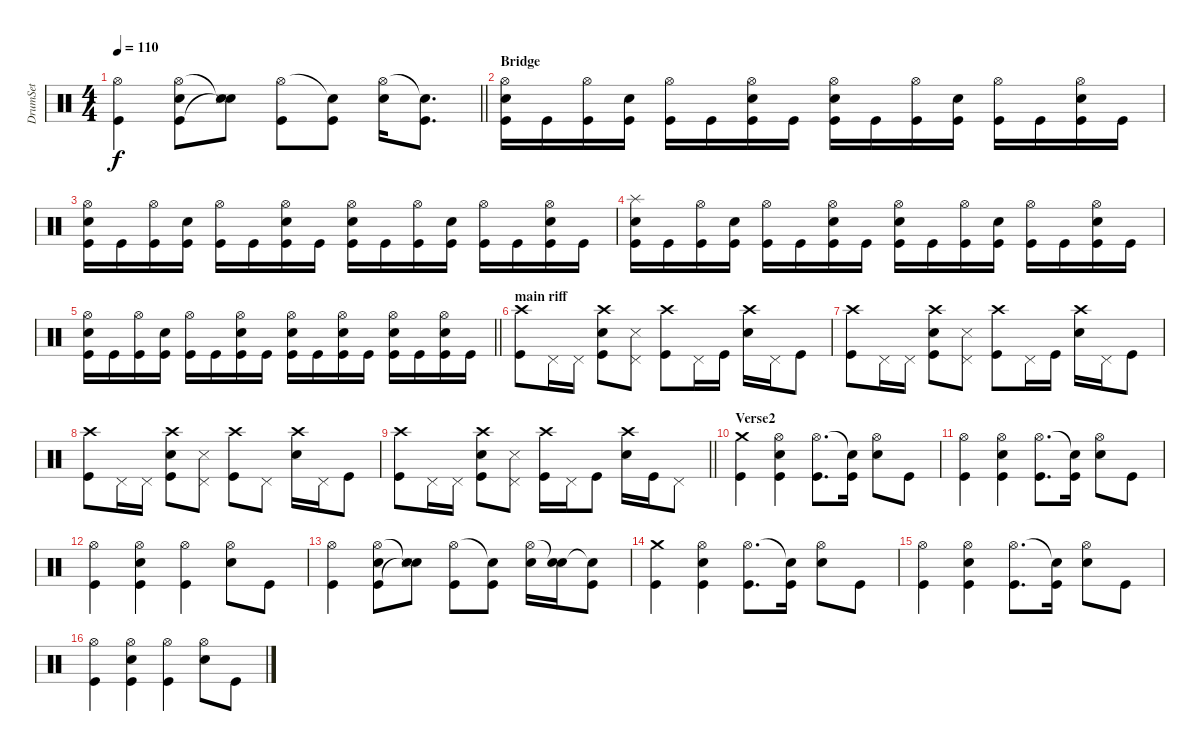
\track ("DrumSet" "DrumSet") {instrument percussion}
\staff {score}
\articulation defaults
\ts (4 4)
\tempo 110
\clef neutral
\barLineRight lightlight
\ks c
("Hi-Hat (open)" "Kick (hit)").4{dy f} ("Hi-Hat (open)" "Snare (hit) 2" "Kick (hit)").8 ("Snare (hit)"{t} "Snare (side stick) 3" "Snare (hit)"{t}).8 ("Hi-Hat (open)" "Kick (hit)").8 ("Snare (hit)"{t} "Kick (hit)").8 ("Hi-Hat (open)" "Snare (hit) 2").16 ("Snare (hit)"{t} "Kick (hit)").8{d} |
\section ("" "Bridge")
("Hi-Hat (open)" "Snare (hit) 2" "Kick (hit)").16 "Kick (hit)".16 ("Hi-Hat (open)" "Kick (hit)").16 ("Snare (hit) 2" "Kick (hit)").16 ("Hi-Hat (open)" "Kick (hit)").16 "Kick (hit)".16 ("Hi-Hat (open)" "Snare (hit) 2" "Kick (hit)").16 "Kick (hit)".16 ("Hi-Hat (open)" "Snare (hit) 2" "Kick (hit)").16 "Kick (hit)".16 ("Hi-Hat (open)" "Kick (hit)").16 ("Snare (hit) 2" "Kick (hit)").16 ("Hi-Hat (open)" "Kick (hit)").16 "Kick (hit)".16 ("Hi-Hat (open)" "Snare (hit) 2" "Kick (hit)").16 "Kick (hit)".16 |
("Hi-Hat (open)" "Snare (hit) 2" "Kick (hit)").16 "Kick (hit)".16 ("Hi-Hat (open)" "Kick (hit)").16 ("Snare (hit) 2" "Kick (hit)").16 ("Hi-Hat (open)" "Kick (hit)").16 "Kick (hit)".16 ("Hi-Hat (open)" "Snare (hit) 2" "Kick (hit)").16 "Kick (hit)".16 ("Hi-Hat (open)" "Snare (hit) 2" "Kick (hit)").16 "Kick (hit)".16 ("Hi-Hat (open)" "Kick (hit)").16 ("Snare (hit) 2" "Kick (hit)").16 ("Hi-Hat (open)" "Kick (hit)").16 "Kick (hit)".16 ("Hi-Hat (open)" "Snare (hit) 2" "Kick (hit)").16 "Kick (hit)".16 |
("Splash (hit)" "Snare (hit) 2" "Kick (hit)").16 "Kick (hit)".16 ("Hi-Hat (open)" "Kick (hit)").16 ("Snare (hit) 2" "Kick (hit)").16 ("Hi-Hat (open)" "Kick (hit)").16 "Kick (hit)".16 ("Hi-Hat (open)" "Snare (hit) 2" "Kick (hit)").16 "Kick (hit)".16 ("Hi-Hat (open)" "Snare (hit) 2" "Kick (hit)").16 "Kick (hit)".16 ("Hi-Hat (open)" "Kick (hit)").16 ("Snare (hit) 2" "Kick (hit)").16 ("Hi-Hat (open)" "Kick (hit)").16 "Kick (hit)".16 ("Hi-Hat (open)" "Snare (hit) 2" "Kick (hit)").16 "Kick (hit)".16 |
\barLineRight lightlight
("Hi-Hat (open)" "Snare (hit) 2" "Kick (hit)").16 "Kick (hit)".16 ("Hi-Hat (open)" "Kick (hit)").16 ("Snare (hit) 2" "Kick (hit)").16 ("Hi-Hat (open)" "Kick (hit)").16 "Kick (hit)".16 ("Hi-Hat (open)" "Snare (hit) 2" "Kick (hit)").16 "Kick (hit)".16 ("Hi-Hat (open)" "Snare (hit) 2" "Kick (hit)").16 "Kick (hit)".16 ("Hi-Hat (open)" "Snare (hit) 2" "Kick (hit)").16 "Kick (hit)".16 ("Hi-Hat (open)" "Snare (hit) 2" "Kick (hit)").16 "Kick (hit)".16 ("Hi-Hat (open)" "Snare (hit) 2" "Kick (hit)").16 "Kick (hit)".16 |
\section ("" "main riff")
("Crash high (hit)" "Kick (hit)").8 "Pedal Hi-Hat (hit)".16 "Pedal Hi-Hat (hit)".16 ("Crash high (hit)" "Snare (hit) 2" "Kick (hit)").8 ("Snare (side stick) 3" "Pedal Hi-Hat (hit)").8 ("Crash high (hit)" "Kick (hit)").8 "Pedal Hi-Hat (hit)".16 "Kick (hit)".16 ("Crash high (hit)" "Snare (hit) 2").16 "Pedal Hi-Hat (hit)".16 "Kick (hit)".8 |
("Crash high (hit)" "Kick (hit)").8 "Pedal Hi-Hat (hit)".16 "Pedal Hi-Hat (hit)".16 ("Crash high (hit)" "Snare (hit) 2" "Kick (hit)").8 ("Snare (side stick) 3" "Pedal Hi-Hat (hit)").8 ("Crash high (hit)" "Kick (hit)").8 "Pedal Hi-Hat (hit)".16 "Kick (hit)".16 ("Crash high (hit)" "Snare (hit) 2").16 "Pedal Hi-Hat (hit)".16 "Kick (hit)".8 |
("Crash high (hit)" "Kick (hit)").8 "Pedal Hi-Hat (hit)".16 "Pedal Hi-Hat (hit)".16 ("Crash high (hit)" "Snare (hit) 2" "Kick (hit)").8 ("Snare (side stick) 3" "Pedal Hi-Hat (hit)").8 ("Crash high (hit)" "Kick (hit)").8 "Pedal Hi-Hat (hit)".8 ("Crash high (hit)" "Snare (hit) 2").16 "Pedal Hi-Hat (hit)".16 "Kick (hit)".8 |
\barLineRight lightlight
("Crash high (hit)" "Kick (hit)").8 "Pedal Hi-Hat (hit)".16 "Pedal Hi-Hat (hit)".16 ("Crash high (hit)" "Snare (hit) 2" "Kick (hit)").8 ("Snare (side stick) 3" "Pedal Hi-Hat (hit)").8 ("Crash high (hit)" "Kick (hit)").16 "Pedal Hi-Hat (hit)".16 "Kick (hit)".8 ("Crash high (hit)" "Snare (hit) 2").16 "Kick (hit)".16 "Pedal Hi-Hat (hit)".8 |
\section ("" "Verse2")
("Crash medium (hit)" "Kick (hit)").4 ("Hi-Hat (open)" "Snare (hit) 2" "Kick (hit)").4 ("Hi-Hat (open)" "Kick (hit)").8{d} ("Snare (hit)"{t} "Kick (hit)").16 ("Hi-Hat (open)" "Snare (hit) 2").8 "Kick (hit)".8 |
("Hi-Hat (open)" "Kick (hit)").4 ("Hi-Hat (open)" "Snare (hit) 2" "Kick (hit)").4 ("Hi-Hat (open)" "Kick (hit)").8{d} ("Snare (hit)"{t} "Kick (hit)").16 ("Hi-Hat (open)" "Snare (hit) 2").8 "Kick (hit)".8 |
("Hi-Hat (open)" "Kick (hit)").4 ("Hi-Hat (open)" "Snare (hit) 2" "Kick (hit)").4 ("Hi-Hat (open)" "Kick (hit)").4 ("Hi-Hat (open)" "Snare (hit) 2").8 "Kick (hit)".8 |
("Hi-Hat (open)" "Kick (hit)").4 ("Hi-Hat (open)" "Snare (hit) 2" "Kick (hit)").8 ("Snare (hit)"{t} "Snare (side stick) 3" "Snare (hit)"{t}).8 ("Hi-Hat (open)" "Kick (hit)").8 ("Snare (hit)"{t} "Kick (hit)").8 ("Hi-Hat (open)" "Snare (hit) 2").16 ("Snare (hit)"{t} "Snare (hit) 2").16 ("Snare (hit)"{t} "Kick (hit)").8 |
("Crash medium (hit)" "Kick (hit)").4 ("Hi-Hat (open)" "Snare (hit) 2" "Kick (hit)").4 ("Hi-Hat (open)" "Kick (hit)").8{d} ("Snare (hit)"{t} "Kick (hit)").16 ("Hi-Hat (open)" "Snare (hit) 2").8 "Kick (hit)".8 |
("Hi-Hat (open)" "Kick (hit)").4 ("Hi-Hat (open)" "Snare (hit) 2" "Kick (hit)").4 ("Hi-Hat (open)" "Kick (hit)").8{d} ("Snare (hit)"{t} "Kick (hit)").16 ("Hi-Hat (open)" "Snare (hit) 2").8 "Kick (hit)".8 |
("Hi-Hat (open)" "Kick (hit)").4 ("Hi-Hat (open)" "Snare (hit) 2" "Kick (hit)").4 ("Hi-Hat (open)" "Kick (hit)").4 ("Hi-Hat (open)" "Snare (hit) 2").8 "Kick (hit)".8
